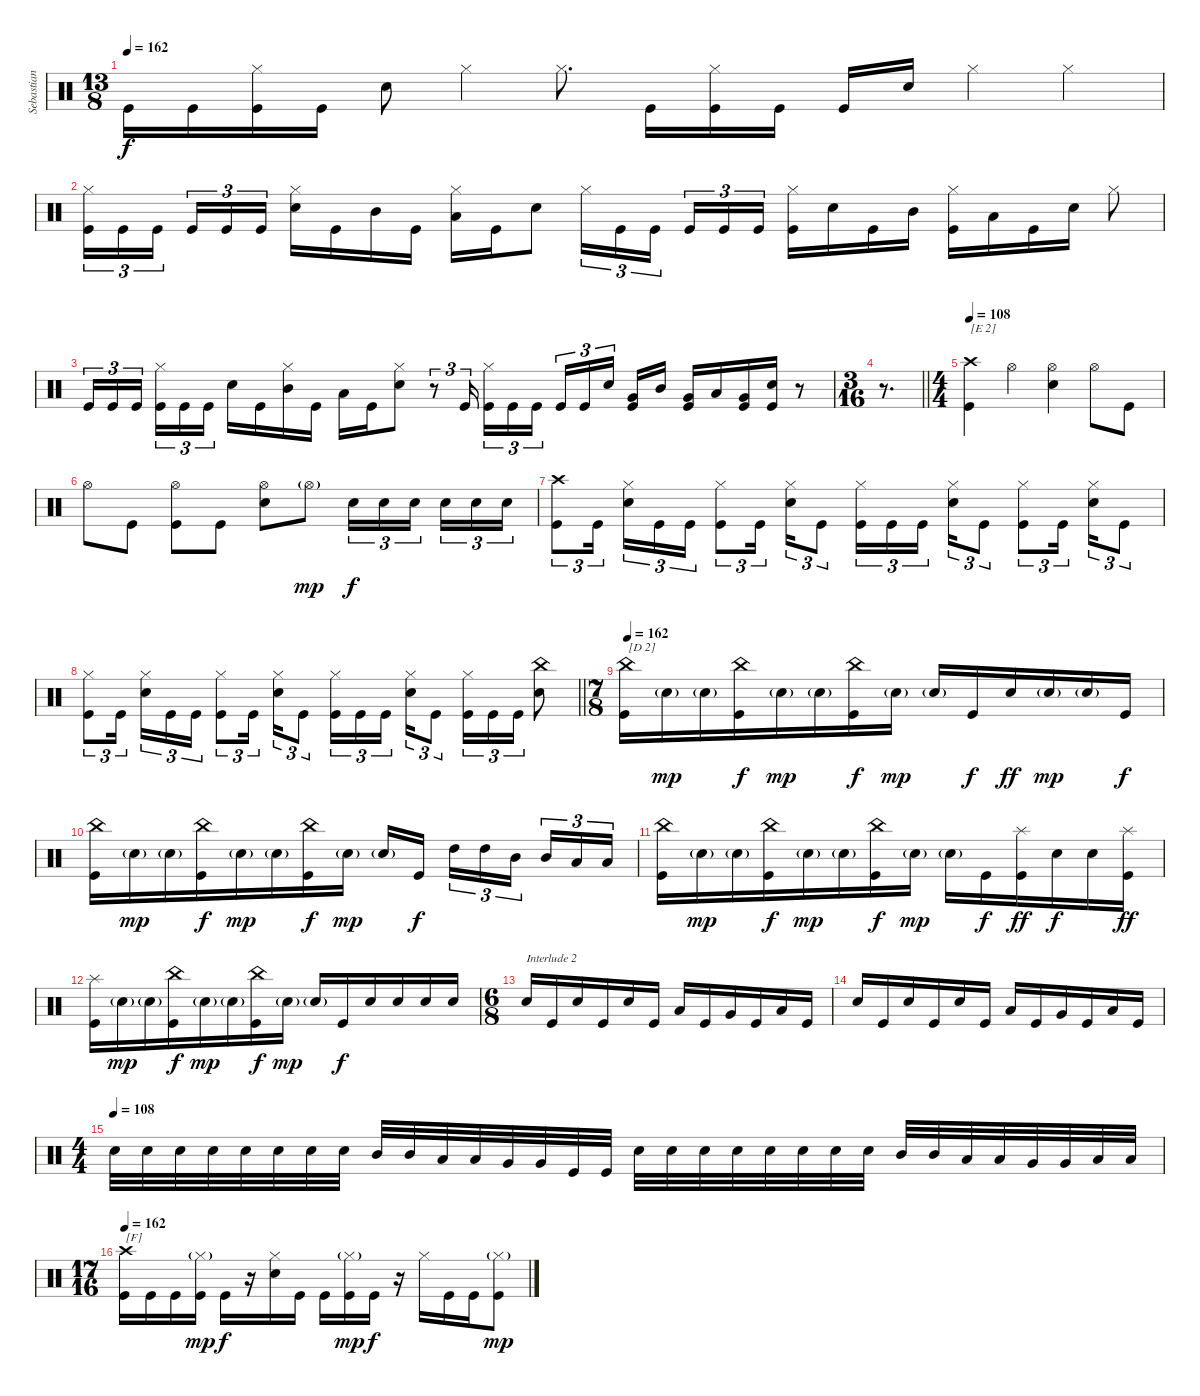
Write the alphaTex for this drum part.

\track ("Sebastian Lanser" "Sebastian ") {instrument percussion}
\staff {score}
\articulation defaults
\ts (13 8)
\tempo 162
\clef neutral
\ks c "Kick (hit)".16{dy f} "Kick (hit)".16
("Hi-Hat (closed)" "Kick (hit)").16 "Kick (hit)".16 "Snare (hit) 2".8 "Hi-Hat (closed)".4 "Hi-Hat (closed)".8{d} "Kick (hit)".16 ("Hi-Hat (closed)" "Kick (hit)").16 "Kick (hit)".16 "Kick (hit)".16 "Snare (hit) 2".16 "Hi-Hat (closed)".4 "Hi-Hat (closed)".4 |
("Hi-Hat (closed)" "Kick (hit)").16{tu (3 2)} "Kick (hit)".16{tu (3 2)} "Kick (hit)".16{tu (3 2)} "Kick (hit)".16{tu (3 2)} "Kick (hit)".16{tu (3 2)} "Kick (hit)".16{tu (3 2)} ("Hi-Hat (closed)" "Snare (hit) 2").16 "Kick (hit)".16 "Mid Tom (hit)".16 "Kick (hit)".16 ("Hi-Hat (closed)" "Low Tom (hit)").16 "Kick (hit)".16 "Snare (hit) 2".8 "Hi-Hat (closed)".16{tu (3 2)} "Kick (hit)".16{tu (3 2)} "Kick (hit)".16{tu (3 2)} "Kick (hit)".16{tu (3 2)} "Kick (hit)".16{tu (3 2)} "Kick (hit)".16{tu (3 2)} ("Hi-Hat (closed)" "Kick (hit)").16 "Snare (hit) 2".16 "Kick (hit)".16 "Mid Tom (hit)".16 ("Hi-Hat (closed)" "Kick (hit)").16 "Low Tom (hit)".16 "Kick (hit)".16 "Snare (hit) 2".16 "Hi-Hat (closed)".8 |
"Kick (hit)".16{tu (3 2)} "Kick (hit)".16{tu (3 2)} "Kick (hit)".16{tu (3 2)} ("Hi-Hat (closed)" "Kick (hit)").16{tu (3 2)} "Kick (hit)".16{tu (3 2)} "Kick (hit)".16{tu (3 2)} "Snare (hit) 2".16 "Kick (hit)".16 ("Hi-Hat (closed)" "Mid Tom (hit)").16 "Kick (hit)".16 "Low Tom (hit)".16 "Kick (hit)".16 ("Hi-Hat (closed)" "Snare (hit) 2").8 r.8{tu (3 2)} "Kick (hit)".16{tu (3 2)} ("Hi-Hat (closed)" "Kick (hit)").16{tu (3 2)} "Kick (hit)".16{tu (3 2)} "Kick (hit)".16{tu (3 2)} "Kick (hit)".16{tu (3 2)} "Kick (hit)".16{tu (3 2)} "Snare (hit) 2".16{tu (3 2)} ("Very Low Tom (hit)" "Kick (hit)").16 "Mid Tom (hit)".16 ("Very Low Tom (hit)" "Kick (hit)").16 "Low Tom (hit)".16 ("Very Low Tom (hit)" "Kick (hit)").16 ("Snare (hit) 2" "Kick (hit)").16 r.8 |
\ts (3 16)
\barLineRight lightlight
r.8{d} |
\ts (4 4)
\tempo 108
("Crash high (hit)" "Kick (hit)").4{txt "[E 2]"} "Hi-Hat (open)".4 ("Hi-Hat (open)" "Snare (hit) 2").4 "Hi-Hat (open)".8 "Kick (hit)".8 |
"Hi-Hat (open)".8 "Kick (hit)".8 ("Hi-Hat (open)" "Kick (hit)").8 "Kick (hit)".8 ("Hi-Hat (open)" "Snare (hit) 2").8 "Hi-Hat (open)"{g}.8{dy mp} "Snare (hit) 2".16{tu (3 2) dy f} "Snare (hit) 2".16{tu (3 2)} "Snare (hit) 2".16{tu (3 2) beam splitsecondary} "Snare (hit) 2".16{tu (3 2)} "Snare (hit) 2".16{tu (3 2)} "Snare (hit) 2".16{tu (3 2)} |
("Crash high (hit)" "Kick (hit)").8{tu (3 2)} "Kick (hit)".16{tu (3 2) beam splitsecondary} ("Hi-Hat (closed)" "Snare (hit) 2").16{tu (3 2)} "Kick (hit)".16{tu (3 2)} "Kick (hit)".16{tu (3 2)} ("Hi-Hat (closed)" "Kick (hit)").8{tu (3 2)} "Kick (hit)".16{tu (3 2) beam splitsecondary} ("Hi-Hat (closed)" "Snare (hit) 2").16{tu (3 2)} "Kick (hit)".8{tu (3 2)} ("Hi-Hat (closed)" "Kick (hit)").16{tu (3 2)} "Kick (hit)".16{tu (3 2)} "Kick (hit)".16{tu (3 2) beam splitsecondary} ("Hi-Hat (closed)" "Snare (hit) 2").16{tu (3 2)} "Kick (hit)".8{tu (3 2)} ("Hi-Hat (closed)" "Kick (hit)").8{tu (3 2)} "Kick (hit)".16{tu (3 2) beam splitsecondary} ("Hi-Hat (closed)" "Snare (hit) 2").16{tu (3 2)} "Kick (hit)".8{tu (3 2)} |
\barLineRight lightlight
("Hi-Hat (closed)" "Kick (hit)").8{tu (3 2)} "Kick (hit)".16{tu (3 2) beam splitsecondary} ("Hi-Hat (closed)" "Snare (hit) 2").16{tu (3 2)} "Kick (hit)".16{tu (3 2)} "Kick (hit)".16{tu (3 2)} ("Hi-Hat (closed)" "Kick (hit)").8{tu (3 2)} "Kick (hit)".16{tu (3 2) beam splitsecondary} ("Hi-Hat (closed)" "Snare (hit) 2").16{tu (3 2)} "Kick (hit)".8{tu (3 2)} ("Hi-Hat (closed)" "Kick (hit)").16{tu (3 2)} "Kick (hit)".16{tu (3 2)} "Kick (hit)".16{tu (3 2) beam splitsecondary} ("Hi-Hat (closed)" "Snare (hit) 2").16{tu (3 2)} "Kick (hit)".8{tu (3 2)} ("Hi-Hat (closed)" "Kick (hit)").16{tu (3 2)} "Kick (hit)".16{tu (3 2)} "Kick (hit)".16{tu (3 2)} ("China (hit)" "Snare (hit) 2").8 |
\ts (7 8)
\tempo 162
("China (hit)" "Kick (hit)").16{txt "[D 2]"} "Snare (hit) 2"{g}.16{dy mp} "Snare (hit) 2"{g}.16 ("China (hit)" "Kick (hit)").16{dy f} "Snare (hit) 2"{g}.16{dy mp} "Snare (hit) 2"{g}.16 ("China (hit)" "Kick (hit)").16{dy f} "Snare (hit) 2"{g}.16{dy mp} "Snare (hit) 2"{g}.16 "Kick (hit)".16{dy f} "Snare (hit) 2".16{dy ff} "Snare (hit) 2"{g}.16{dy mp} "Snare (hit) 2"{g}.16 "Kick (hit)".16{dy f} |
("China (hit)" "Kick (hit)").16 "Snare (hit) 2"{g}.16{dy mp} "Snare (hit) 2"{g}.16 ("China (hit)" "Kick (hit)").16{dy f} "Snare (hit) 2"{g}.16{dy mp} "Snare (hit) 2"{g}.16 ("China (hit)" "Kick (hit)").16{dy f} "Snare (hit) 2"{g}.16{dy mp} "Snare (hit) 2"{g}.16 "Kick (hit)".16{dy f} "High Tom (hit)".16{tu (3 2)} "High Tom (hit)".16{tu (3 2)} "Mid Tom (hit)".16{tu (3 2)} "Mid Tom (hit)".16{tu (3 2)} "Low Tom (hit)".16{tu (3 2)} "Low Tom (hit)".16{tu (3 2)} |
("China (hit)" "Kick (hit)").16 "Snare (hit) 2"{g}.16{dy mp} "Snare (hit) 2"{g}.16 ("China (hit)" "Kick (hit)").16{dy f} "Snare (hit) 2"{g}.16{dy mp} "Snare (hit) 2"{g}.16 ("China (hit)" "Kick (hit)").16{dy f} "Snare (hit) 2"{g}.16{dy mp} "Snare (hit) 2"{g}.16 "Kick (hit)".16{dy f} ("Splash (hit)" "Kick (hit)").16{dy ff} "Snare (hit) 2".16{dy f} "Snare (hit) 2".16 ("Splash (hit)" "Kick (hit)").16{dy ff} |
("Splash (hit)" "Kick (hit)").16 "Snare (hit) 2"{g}.16{dy mp} "Snare (hit) 2"{g}.16 ("China (hit)" "Kick (hit)").16{dy f} "Snare (hit) 2"{g}.16{dy mp} "Snare (hit) 2"{g}.16 ("China (hit)" "Kick (hit)").16{dy f} "Snare (hit) 2"{g}.16{dy mp} "Snare (hit) 2"{g}.16 "Kick (hit)".16{dy f} "Snare (hit) 2".16 "Snare (hit) 2".16 "Snare (hit) 2".16 "Snare (hit) 2".16 |
\ts (6 8)
"Snare (hit) 2".16{txt "Interlude 2"} "Kick (hit)".16 "Snare (hit) 2".16 "Kick (hit)".16 "Snare (hit) 2".16 "Kick (hit)".16 "Low Tom (hit)".16 "Kick (hit)".16 "Very Low Tom (hit)".16 "Kick (hit)".16 "Low Floor Tom (hit)".16 "Kick (hit)".16 |
"Snare (hit) 2".16 "Kick (hit)".16 "Snare (hit) 2".16 "Kick (hit)".16 "Snare (hit) 2".16 "Kick (hit)".16 "Low Tom (hit)".16 "Kick (hit)".16 "Very Low Tom (hit)".16 "Kick (hit)".16 "Low Floor Tom (hit)".16 "Kick (hit)".16 |
\ts (4 4)
\tempo (108)
"Snare (hit) 2".32 "Snare (hit) 2".32 "Snare (hit) 2".32 "Snare (hit) 2".32 "Snare (hit) 2".32 "Snare (hit) 2".32 "Snare (hit) 2".32 "Snare (hit) 2".32 "Mid Tom (hit)".32 "Mid Tom (hit)".32 "Low Tom (hit)".32 "Low Tom (hit)".32 "Very Low Tom (hit)".32 "Very Low Tom (hit)".32 "Kick (hit)".32 "Kick (hit)".32 "Snare (hit) 2".32 "Snare (hit) 2".32 "Snare (hit) 2".32 "Snare (hit) 2".32 "Snare (hit) 2".32 "Snare (hit) 2".32 "Snare (hit) 2".32 "Snare (hit) 2".32 "Mid Tom (hit)".32 "Mid Tom (hit)".32 "Low Tom (hit)".32 "Low Tom (hit)".32 "Very Low Tom (hit)".32 "Very Low Tom (hit)".32 "Low Floor Tom (hit)".32 "Low Floor Tom (hit)".32 |
\ts (17 16)
\tempo 162
("Crash high (hit)" "Kick (hit)").16{txt "[F]"} "Kick (hit)".16 "Kick (hit)".16 ("Hi-Hat (closed)"{g} "Kick (hit)").16{dy mp} "Kick (hit)".16{dy f} r.16 ("Hi-Hat (closed)" "Snare (hit) 2").16 "Kick (hit)".16 "Kick (hit)".16 ("Hi-Hat (closed)"{g} "Kick (hit)").16{dy mp} "Kick (hit)".16{dy f} r.16 "Hi-Hat (closed)".16 "Kick (hit)".16 "Kick (hit)".16 ("Hi-Hat (closed)"{g} "Kick (hit)").8{dy mp}
